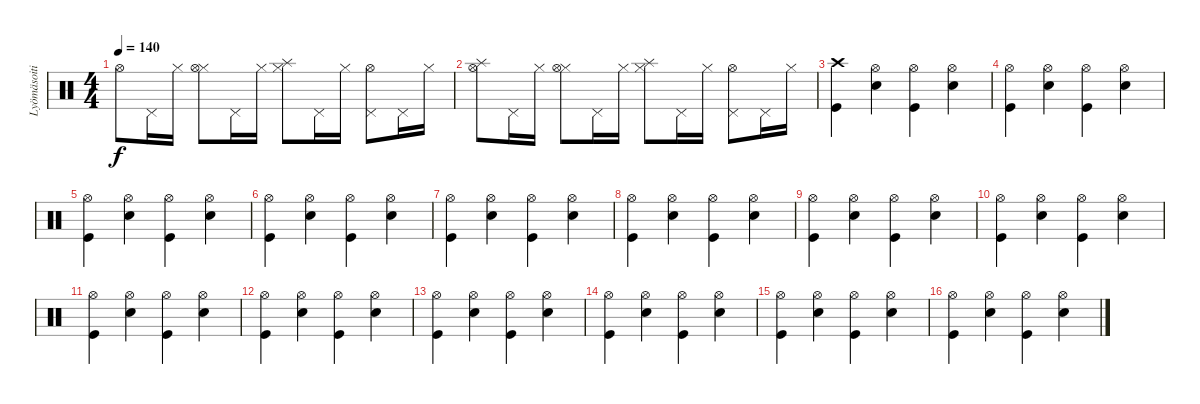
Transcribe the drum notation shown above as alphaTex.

\track ("Lyömäsoitin" "Lyömäsoiti") {instrument percussion}
\staff {score}
\articulation defaults
\ts (4 4)
\tempo 140
\clef neutral
\ks c "Hi-Hat (open)".8{dy f} "Pedal Hi-Hat (hit)".16 "Hi-Hat (closed)".16
("Hi-Hat (closed)" "Hi-Hat (open)").8 "Pedal Hi-Hat (hit)".16 "Hi-Hat (closed)".16 ("Hi-Hat (closed)" "Splash (hit)").8 "Pedal Hi-Hat (hit)".16 "Hi-Hat (closed)".16 ("Pedal Hi-Hat (hit)" "Hi-Hat (open)").8 "Pedal Hi-Hat (hit)".16 "Hi-Hat (closed)".16 |
("Hi-Hat (open)" "Splash (hit)").8 "Pedal Hi-Hat (hit)".16 "Hi-Hat (closed)".16 ("Hi-Hat (closed)" "Hi-Hat (open)").8 "Pedal Hi-Hat (hit)".16 "Hi-Hat (closed)".16 ("Hi-Hat (closed)" "Splash (hit)").8 "Pedal Hi-Hat (hit)".16 "Hi-Hat (closed)".16 ("Pedal Hi-Hat (hit)" "Hi-Hat (open)").8 "Pedal Hi-Hat (hit)".16 "Hi-Hat (closed)".16 |
("Kick (hit)" "Crash high (hit)").4 ("Electric Snare (hit)" "Hi-Hat (open)").4 ("Kick (hit)" "Hi-Hat (open)").4 ("Electric Snare (hit)" "Hi-Hat (open)").4 |
("Kick (hit)" "Hi-Hat (open)").4 ("Electric Snare (hit)" "Hi-Hat (open)").4 ("Kick (hit)" "Hi-Hat (open)").4 ("Electric Snare (hit)" "Hi-Hat (open)").4 |
("Kick (hit)" "Hi-Hat (open)").4 ("Electric Snare (hit)" "Hi-Hat (open)").4 ("Kick (hit)" "Hi-Hat (open)").4 ("Electric Snare (hit)" "Hi-Hat (open)").4 |
("Kick (hit)" "Hi-Hat (open)").4 ("Electric Snare (hit)" "Hi-Hat (open)").4 ("Kick (hit)" "Hi-Hat (open)").4 ("Electric Snare (hit)" "Hi-Hat (open)").4 |
("Kick (hit)" "Hi-Hat (open)").4 ("Electric Snare (hit)" "Hi-Hat (open)").4 ("Kick (hit)" "Hi-Hat (open)").4 ("Electric Snare (hit)" "Hi-Hat (open)").4 |
("Kick (hit)" "Hi-Hat (open)").4 ("Electric Snare (hit)" "Hi-Hat (open)").4 ("Kick (hit)" "Hi-Hat (open)").4 ("Electric Snare (hit)" "Hi-Hat (open)").4 |
("Kick (hit)" "Hi-Hat (open)").4 ("Electric Snare (hit)" "Hi-Hat (open)").4 ("Kick (hit)" "Hi-Hat (open)").4 ("Electric Snare (hit)" "Hi-Hat (open)").4 |
("Kick (hit)" "Hi-Hat (open)").4 ("Electric Snare (hit)" "Hi-Hat (open)").4 ("Kick (hit)" "Hi-Hat (open)").4 ("Electric Snare (hit)" "Hi-Hat (open)").4 |
("Kick (hit)" "Hi-Hat (open)").4 ("Electric Snare (hit)" "Hi-Hat (open)").4 ("Kick (hit)" "Hi-Hat (open)").4 ("Electric Snare (hit)" "Hi-Hat (open)").4 |
("Kick (hit)" "Hi-Hat (open)").4 ("Electric Snare (hit)" "Hi-Hat (open)").4 ("Kick (hit)" "Hi-Hat (open)").4 ("Electric Snare (hit)" "Hi-Hat (open)").4 |
("Kick (hit)" "Hi-Hat (open)").4 ("Electric Snare (hit)" "Hi-Hat (open)").4 ("Kick (hit)" "Hi-Hat (open)").4 ("Electric Snare (hit)" "Hi-Hat (open)").4 |
("Kick (hit)" "Hi-Hat (open)").4 ("Electric Snare (hit)" "Hi-Hat (open)").4 ("Kick (hit)" "Hi-Hat (open)").4 ("Electric Snare (hit)" "Hi-Hat (open)").4 |
("Kick (hit)" "Hi-Hat (open)").4 ("Electric Snare (hit)" "Hi-Hat (open)").4 ("Kick (hit)" "Hi-Hat (open)").4 ("Electric Snare (hit)" "Hi-Hat (open)").4 |
("Kick (hit)" "Hi-Hat (open)").4 ("Electric Snare (hit)" "Hi-Hat (open)").4 ("Kick (hit)" "Hi-Hat (open)").4 ("Electric Snare (hit)" "Hi-Hat (open)").4
